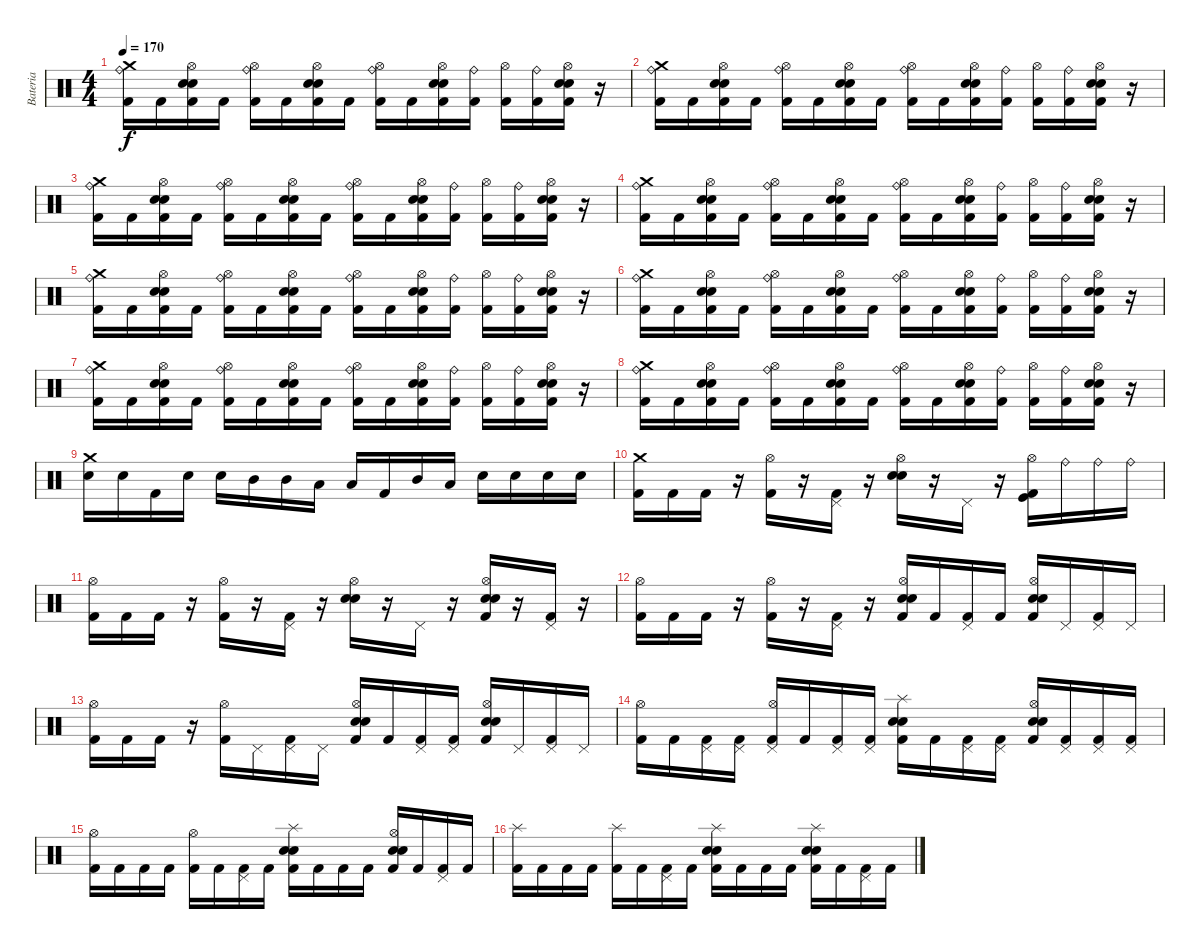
\track ("Bateria" "Bateria") {instrument percussion}
\staff {score}
\articulation defaults
\ts (4 4)
\tempo 170
\clef neutral
\ks c
("Ride (bell)" "Crash medium (hit)" "Kick (hit) 2").16{dy f} "Kick (hit) 2".16 ("Hi-Hat (open)" "Electric Snare (hit)" "Snare (hit) 2" "Kick (hit) 2").16 "Kick (hit) 2".16 ("Ride (bell)" "Hi-Hat (open)" "Kick (hit) 2").16 "Kick (hit) 2".16 ("Hi-Hat (open)" "Electric Snare (hit)" "Snare (hit) 2" "Kick (hit) 2").16 "Kick (hit) 2".16 ("Ride (bell)" "Hi-Hat (open)" "Kick (hit) 2").16 "Kick (hit) 2".16 ("Hi-Hat (open)" "Electric Snare (hit)" "Snare (hit) 2" "Kick (hit) 2").16 ("Ride (bell)" "Kick (hit) 2").16 ("Hi-Hat (open)" "Kick (hit) 2").16 ("Ride (bell)" "Kick (hit) 2").16 ("Hi-Hat (open)" "Electric Snare (hit)" "Snare (hit) 2" "Kick (hit) 2").16 r.16 |
("Ride (bell)" "Crash medium (hit)" "Kick (hit) 2").16 "Kick (hit) 2".16 ("Hi-Hat (open)" "Electric Snare (hit)" "Snare (hit) 2" "Kick (hit) 2").16 "Kick (hit) 2".16 ("Ride (bell)" "Hi-Hat (open)" "Kick (hit) 2").16 "Kick (hit) 2".16 ("Hi-Hat (open)" "Electric Snare (hit)" "Snare (hit) 2" "Kick (hit) 2").16 "Kick (hit) 2".16 ("Ride (bell)" "Hi-Hat (open)" "Kick (hit) 2").16 "Kick (hit) 2".16 ("Hi-Hat (open)" "Electric Snare (hit)" "Snare (hit) 2" "Kick (hit) 2").16 ("Ride (bell)" "Kick (hit) 2").16 ("Hi-Hat (open)" "Kick (hit) 2").16 ("Ride (bell)" "Kick (hit) 2").16 ("Hi-Hat (open)" "Electric Snare (hit)" "Snare (hit) 2" "Kick (hit) 2").16 r.16 |
("Ride (bell)" "Crash medium (hit)" "Kick (hit) 2").16 "Kick (hit) 2".16 ("Hi-Hat (open)" "Electric Snare (hit)" "Snare (hit) 2" "Kick (hit) 2").16 "Kick (hit) 2".16 ("Ride (bell)" "Hi-Hat (open)" "Kick (hit) 2").16 "Kick (hit) 2".16 ("Hi-Hat (open)" "Electric Snare (hit)" "Snare (hit) 2" "Kick (hit) 2").16 "Kick (hit) 2".16 ("Ride (bell)" "Hi-Hat (open)" "Kick (hit) 2").16 "Kick (hit) 2".16 ("Hi-Hat (open)" "Electric Snare (hit)" "Snare (hit) 2" "Kick (hit) 2").16 ("Ride (bell)" "Kick (hit) 2").16 ("Hi-Hat (open)" "Kick (hit) 2").16 ("Ride (bell)" "Kick (hit) 2").16 ("Hi-Hat (open)" "Electric Snare (hit)" "Snare (hit) 2" "Kick (hit) 2").16 r.16 |
("Ride (bell)" "Crash medium (hit)" "Kick (hit) 2").16 "Kick (hit) 2".16 ("Hi-Hat (open)" "Electric Snare (hit)" "Snare (hit) 2" "Kick (hit) 2").16 "Kick (hit) 2".16 ("Ride (bell)" "Hi-Hat (open)" "Kick (hit) 2").16 "Kick (hit) 2".16 ("Hi-Hat (open)" "Electric Snare (hit)" "Snare (hit) 2" "Kick (hit) 2").16 "Kick (hit) 2".16 ("Ride (bell)" "Hi-Hat (open)" "Kick (hit) 2").16 "Kick (hit) 2".16 ("Hi-Hat (open)" "Electric Snare (hit)" "Snare (hit) 2" "Kick (hit) 2").16 ("Ride (bell)" "Kick (hit) 2").16 ("Hi-Hat (open)" "Kick (hit) 2").16 ("Ride (bell)" "Kick (hit) 2").16 ("Hi-Hat (open)" "Electric Snare (hit)" "Snare (hit) 2" "Kick (hit) 2").16 r.16 |
("Ride (bell)" "Crash medium (hit)" "Kick (hit) 2").16 "Kick (hit) 2".16 ("Hi-Hat (open)" "Electric Snare (hit)" "Snare (hit) 2" "Kick (hit) 2").16 "Kick (hit) 2".16 ("Ride (bell)" "Hi-Hat (open)" "Kick (hit) 2").16 "Kick (hit) 2".16 ("Hi-Hat (open)" "Electric Snare (hit)" "Snare (hit) 2" "Kick (hit) 2").16 "Kick (hit) 2".16 ("Ride (bell)" "Hi-Hat (open)" "Kick (hit) 2").16 "Kick (hit) 2".16 ("Hi-Hat (open)" "Electric Snare (hit)" "Snare (hit) 2" "Kick (hit) 2").16 ("Ride (bell)" "Kick (hit) 2").16 ("Hi-Hat (open)" "Kick (hit) 2").16 ("Ride (bell)" "Kick (hit) 2").16 ("Hi-Hat (open)" "Electric Snare (hit)" "Snare (hit) 2" "Kick (hit) 2").16 r.16 |
("Ride (bell)" "Crash medium (hit)" "Kick (hit) 2").16 "Kick (hit) 2".16 ("Hi-Hat (open)" "Electric Snare (hit)" "Snare (hit) 2" "Kick (hit) 2").16 "Kick (hit) 2".16 ("Ride (bell)" "Hi-Hat (open)" "Kick (hit) 2").16 "Kick (hit) 2".16 ("Hi-Hat (open)" "Electric Snare (hit)" "Snare (hit) 2" "Kick (hit) 2").16 "Kick (hit) 2".16 ("Ride (bell)" "Hi-Hat (open)" "Kick (hit) 2").16 "Kick (hit) 2".16 ("Hi-Hat (open)" "Electric Snare (hit)" "Snare (hit) 2" "Kick (hit) 2").16 ("Ride (bell)" "Kick (hit) 2").16 ("Hi-Hat (open)" "Kick (hit) 2").16 ("Ride (bell)" "Kick (hit) 2").16 ("Hi-Hat (open)" "Electric Snare (hit)" "Snare (hit) 2" "Kick (hit) 2").16 r.16 |
("Ride (bell)" "Crash medium (hit)" "Kick (hit) 2").16 "Kick (hit) 2".16 ("Hi-Hat (open)" "Electric Snare (hit)" "Snare (hit) 2" "Kick (hit) 2").16 "Kick (hit) 2".16 ("Ride (bell)" "Hi-Hat (open)" "Kick (hit) 2").16 "Kick (hit) 2".16 ("Hi-Hat (open)" "Electric Snare (hit)" "Snare (hit) 2" "Kick (hit) 2").16 "Kick (hit) 2".16 ("Ride (bell)" "Hi-Hat (open)" "Kick (hit) 2").16 "Kick (hit) 2".16 ("Hi-Hat (open)" "Electric Snare (hit)" "Snare (hit) 2" "Kick (hit) 2").16 ("Ride (bell)" "Kick (hit) 2").16 ("Hi-Hat (open)" "Kick (hit) 2").16 ("Ride (bell)" "Kick (hit) 2").16 ("Hi-Hat (open)" "Electric Snare (hit)" "Snare (hit) 2" "Kick (hit) 2").16 r.16 |
("Ride (bell)" "Crash medium (hit)" "Kick (hit) 2").16 "Kick (hit) 2".16 ("Hi-Hat (open)" "Electric Snare (hit)" "Snare (hit) 2" "Kick (hit) 2").16 "Kick (hit) 2".16 ("Ride (bell)" "Hi-Hat (open)" "Kick (hit) 2").16 "Kick (hit) 2".16 ("Hi-Hat (open)" "Electric Snare (hit)" "Snare (hit) 2" "Kick (hit) 2").16 "Kick (hit) 2".16 ("Ride (bell)" "Hi-Hat (open)" "Kick (hit) 2").16 "Kick (hit) 2".16 ("Hi-Hat (open)" "Electric Snare (hit)" "Snare (hit) 2" "Kick (hit) 2").16 ("Ride (bell)" "Kick (hit) 2").16 ("Hi-Hat (open)" "Kick (hit) 2").16 ("Ride (bell)" "Kick (hit) 2").16 ("Hi-Hat (open)" "Electric Snare (hit)" "Snare (hit) 2" "Kick (hit) 2").16 r.16 |
("Crash medium (hit)" "Snare (hit) 2").16 "Snare (hit) 2".16 "Kick (hit) 2".16 "Snare (hit) 2".16 "Snare (hit) 2".16 "Mid Tom (hit)".16 "Mid Tom (hit)".16 "Low Tom (hit)".16 "Low Tom (hit)".16 "Kick (hit) 2".16 "Mid Tom (hit)".16 "Low Tom (hit)".16 "Snare (hit) 2".16 "Snare (hit) 2".16 "Snare (hit) 2".16 "Snare (hit) 2".16 |
("Crash medium (hit)" "Kick (hit) 2").16 "Kick (hit) 2".16 "Kick (hit) 2".16 r.16 ("Hi-Hat (open)" "Kick (hit) 2").16 r.16 ("Pedal Hi-Hat (hit)" "Kick (hit) 2").16 r.16 ("Hi-Hat (open)" "Electric Snare (hit)" "Snare (hit) 2").16 r.16 "Pedal Hi-Hat (hit)".16 r.16 ("Hi-Hat (open)" "Kick (hit)" "Kick (hit) 2").16 "Ride (bell)".16 "Ride (bell)".16 "Ride (bell)".16 |
("Hi-Hat (open)" "Kick (hit) 2").16 "Kick (hit) 2".16 "Kick (hit) 2".16 r.16 ("Hi-Hat (open)" "Kick (hit) 2").16 r.16 ("Pedal Hi-Hat (hit)" "Kick (hit) 2").16 r.16 ("Hi-Hat (open)" "Electric Snare (hit)" "Snare (hit) 2").16 r.16 "Pedal Hi-Hat (hit)".16 r.16 ("Hi-Hat (open)" "Electric Snare (hit)" "Snare (hit) 2" "Kick (hit) 2").16 r.16 ("Pedal Hi-Hat (hit)" "Kick (hit) 2").16 r.16 |
("Hi-Hat (open)" "Kick (hit) 2").16 "Kick (hit) 2".16 "Kick (hit) 2".16 r.16 ("Hi-Hat (open)" "Kick (hit) 2").16 r.16 ("Pedal Hi-Hat (hit)" "Kick (hit) 2").16 r.16 ("Hi-Hat (open)" "Electric Snare (hit)" "Snare (hit) 2" "Kick (hit) 2").16 "Kick (hit) 2".16 ("Pedal Hi-Hat (hit)" "Kick (hit) 2").16 "Kick (hit) 2".16 ("Hi-Hat (open)" "Electric Snare (hit)" "Snare (hit) 2" "Kick (hit) 2").16 "Pedal Hi-Hat (hit)".16 ("Pedal Hi-Hat (hit)" "Kick (hit) 2").16 "Pedal Hi-Hat (hit)".16 |
("Hi-Hat (open)" "Kick (hit) 2").16 "Kick (hit) 2".16 "Kick (hit) 2".16 r.16 ("Hi-Hat (open)" "Kick (hit) 2").16 "Pedal Hi-Hat (hit)".16 ("Pedal Hi-Hat (hit)" "Kick (hit) 2").16 "Pedal Hi-Hat (hit)".16 ("Hi-Hat (open)" "Electric Snare (hit)" "Snare (hit) 2" "Kick (hit) 2").16 "Kick (hit) 2".16 ("Pedal Hi-Hat (hit)" "Kick (hit) 2").16 ("Pedal Hi-Hat (hit)" "Kick (hit) 2").16 ("Hi-Hat (open)" "Electric Snare (hit)" "Snare (hit) 2" "Kick (hit) 2").16 "Pedal Hi-Hat (hit)".16 ("Pedal Hi-Hat (hit)" "Kick (hit) 2").16 "Pedal Hi-Hat (hit)".16 |
("Hi-Hat (open)" "Kick (hit) 2").16 "Kick (hit) 2".16 ("Pedal Hi-Hat (hit)" "Kick (hit) 2").16 ("Pedal Hi-Hat (hit)" "Kick (hit) 2").16 ("Hi-Hat (open)" "Pedal Hi-Hat (hit)" "Kick (hit) 2").16 "Kick (hit) 2".16 ("Pedal Hi-Hat (hit)" "Kick (hit) 2").16 ("Pedal Hi-Hat (hit)" "Kick (hit) 2").16 ("Splash (hit)" "Electric Snare (hit)" "Snare (hit) 2" "Kick (hit) 2").16 "Kick (hit) 2".16 ("Pedal Hi-Hat (hit)" "Kick (hit) 2").16 ("Pedal Hi-Hat (hit)" "Kick (hit) 2").16 ("Hi-Hat (open)" "Electric Snare (hit)" "Snare (hit) 2" "Kick (hit) 2").16 ("Pedal Hi-Hat (hit)" "Kick (hit) 2").16 ("Pedal Hi-Hat (hit)" "Kick (hit) 2").16 ("Pedal Hi-Hat (hit)" "Kick (hit) 2").16 |
("Hi-Hat (open)" "Kick (hit) 2").16 "Kick (hit) 2".16 "Kick (hit) 2".16 "Kick (hit) 2".16 ("Hi-Hat (open)" "Kick (hit) 2").16 "Kick (hit) 2".16 ("Pedal Hi-Hat (hit)" "Kick (hit) 2").16 "Kick (hit) 2".16 ("Splash (hit)" "Electric Snare (hit)" "Snare (hit) 2" "Kick (hit) 2").16 "Kick (hit) 2".16 "Kick (hit) 2".16 "Kick (hit) 2".16 ("Hi-Hat (open)" "Electric Snare (hit)" "Snare (hit) 2" "Kick (hit) 2").16 "Kick (hit) 2".16 ("Pedal Hi-Hat (hit)" "Kick (hit) 2").16 "Kick (hit) 2".16 |
("Splash (hit)" "Kick (hit) 2").16 "Kick (hit) 2".16 "Kick (hit) 2".16 "Kick (hit) 2".16 ("Splash (hit)" "Kick (hit) 2").16 "Kick (hit) 2".16 ("Pedal Hi-Hat (hit)" "Kick (hit) 2").16 "Kick (hit) 2".16 ("Splash (hit)" "Electric Snare (hit)" "Snare (hit) 2" "Kick (hit) 2").16 "Kick (hit) 2".16 "Kick (hit) 2".16 "Kick (hit) 2".16 ("Splash (hit)" "Electric Snare (hit)" "Snare (hit) 2" "Kick (hit) 2").16 "Kick (hit) 2".16 ("Pedal Hi-Hat (hit)" "Kick (hit) 2").16 "Kick (hit) 2".16
